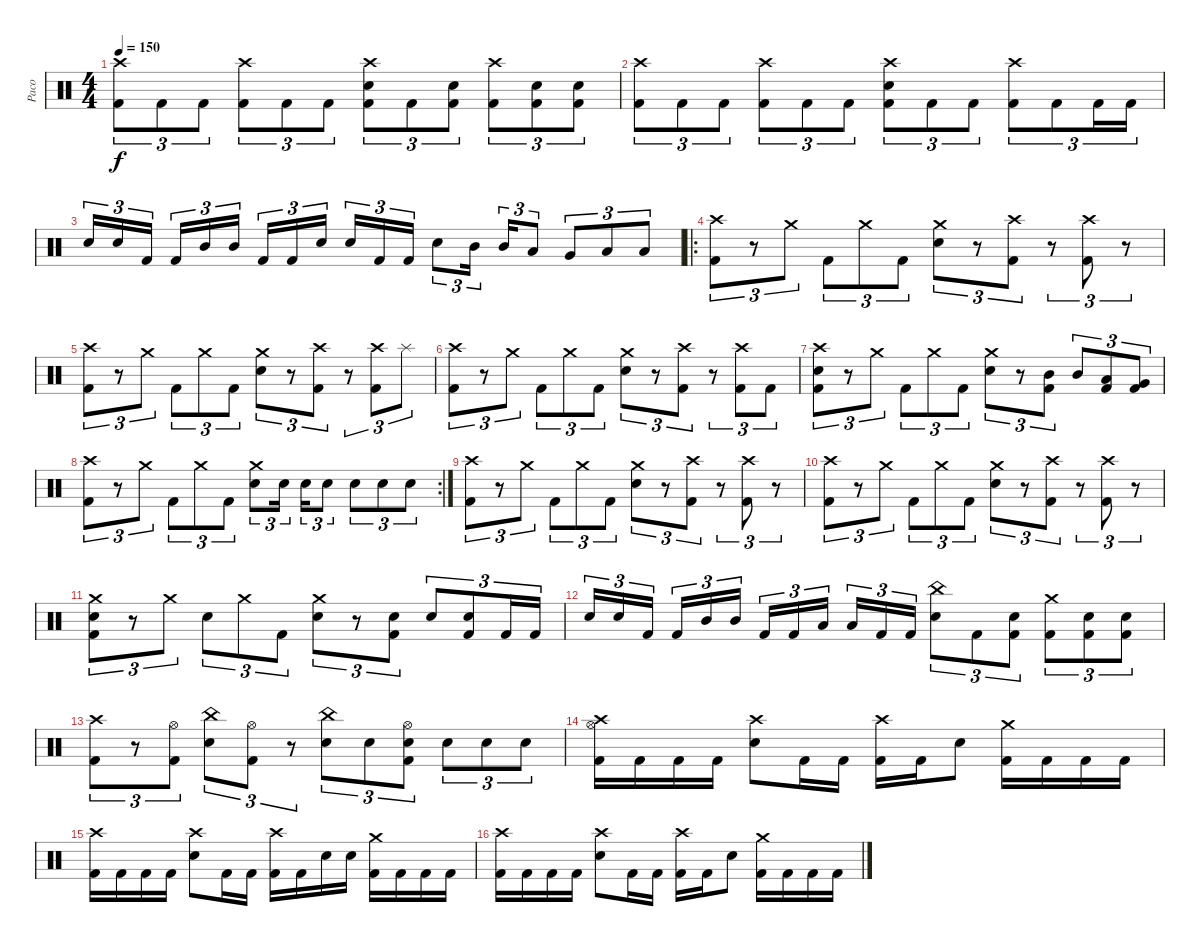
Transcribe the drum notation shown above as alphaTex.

\track ("Paco" "Paco") {instrument percussion}
\staff {score}
\articulation defaults
\ts (4 4)
\tempo 150
\clef neutral
\ks c
("Crash high (hit)" "Kick (hit) 2").8{tu (3 2) dy f} "Kick (hit) 2".8{tu (3 2)} "Kick (hit) 2".8{tu (3 2)} ("Crash high (hit)" "Kick (hit) 2").8{tu (3 2)} "Kick (hit) 2".8{tu (3 2)} "Kick (hit) 2".8{tu (3 2)} ("Crash high (hit)" "Electric Snare (hit)" "Kick (hit) 2").8{tu (3 2)} "Kick (hit) 2".8{tu (3 2)} ("Electric Snare (hit)" "Kick (hit) 2").8{tu (3 2)} ("Crash high (hit)" "Kick (hit) 2").8{tu (3 2)} ("Electric Snare (hit)" "Kick (hit) 2").8{tu (3 2)} ("Electric Snare (hit)" "Kick (hit) 2").8{tu (3 2)} |
("Crash high (hit)" "Kick (hit) 2").8{tu (3 2)} "Kick (hit) 2".8{tu (3 2)} "Kick (hit) 2".8{tu (3 2)} ("Crash high (hit)" "Kick (hit) 2").8{tu (3 2)} "Kick (hit) 2".8{tu (3 2)} "Kick (hit) 2".8{tu (3 2)} ("Crash high (hit)" "Electric Snare (hit)" "Kick (hit) 2").8{tu (3 2)} "Kick (hit) 2".8{tu (3 2)} "Kick (hit) 2".8{tu (3 2)} ("Crash high (hit)" "Kick (hit) 2").8{tu (3 2)} "Kick (hit) 2".8{tu (3 2)} "Kick (hit) 2".16{tu (3 2)} "Kick (hit) 2".16{tu (3 2)} |
"Electric Snare (hit)".16{tu (3 2)} "Electric Snare (hit)".16{tu (3 2)} "Kick (hit) 2".16{tu (3 2) beam splitsecondary} "Kick (hit) 2".16{tu (3 2)} "Mid Tom (hit)".16{tu (3 2)} "Mid Tom (hit)".16{tu (3 2)} "Kick (hit) 2".16{tu (3 2)} "Kick (hit) 2".16{tu (3 2)} "Electric Snare (hit)".16{tu (3 2) beam splitsecondary} "Electric Snare (hit)".16{tu (3 2)} "Kick (hit) 2".16{tu (3 2)} "Kick (hit) 2".16{tu (3 2)} "Electric Snare (hit)".8{tu (3 2)} "Mid Tom (hit)".16{tu (3 2) beam splitsecondary} "Mid Tom (hit)".16{tu (3 2)} "Low Tom (hit)".8{tu (3 2)} "Very Low Tom (hit)".8{tu (3 2)} "Low Floor Tom (hit)".8{tu (3 2)} "Low Floor Tom (hit)".8{tu (3 2)} |
\ro
("Crash high (hit)" "Kick (hit) 2").8{tu (3 2)} r.8{tu (3 2)} "Crash medium (hit)".8{tu (3 2)} "Kick (hit) 2".8{tu (3 2)} "Crash medium (hit)".8{tu (3 2)} "Kick (hit) 2".8{tu (3 2)} ("Crash medium (hit)" "Electric Snare (hit)").8{tu (3 2)} r.8{tu (3 2)} ("Crash high (hit)" "Kick (hit) 2").8{tu (3 2)} r.8{tu (3 2)} ("Crash high (hit)" "Kick (hit) 2").8{tu (3 2)} r.8{tu (3 2)} |
("Crash high (hit)" "Kick (hit) 2").8{tu (3 2)} r.8{tu (3 2)} "Crash medium (hit)".8{tu (3 2)} "Kick (hit) 2".8{tu (3 2)} "Crash medium (hit)".8{tu (3 2)} "Kick (hit) 2".8{tu (3 2)} ("Crash medium (hit)" "Electric Snare (hit)").8{tu (3 2)} r.8{tu (3 2)} ("Crash high (hit)" "Kick (hit) 2").8{tu (3 2)} r.8{tu (3 2)} ("Crash high (hit)" "Kick (hit) 2").8{tu (3 2)} "Splash (hit)".8{tu (3 2)} |
("Crash high (hit)" "Kick (hit) 2").8{tu (3 2)} r.8{tu (3 2)} "Crash medium (hit)".8{tu (3 2)} "Kick (hit) 2".8{tu (3 2)} "Crash medium (hit)".8{tu (3 2)} "Kick (hit) 2".8{tu (3 2)} ("Crash medium (hit)" "Electric Snare (hit)").8{tu (3 2)} r.8{tu (3 2)} ("Crash high (hit)" "Kick (hit) 2").8{tu (3 2)} r.8{tu (3 2)} ("Crash high (hit)" "Kick (hit) 2").8{tu (3 2)} "Kick (hit) 2".8{tu (3 2)} |
("Crash high (hit)" "Electric Snare (hit)" "Kick (hit) 2").8{tu (3 2)} r.8{tu (3 2)} "Crash medium (hit)".8{tu (3 2)} "Kick (hit) 2".8{tu (3 2)} "Crash medium (hit)".8{tu (3 2)} "Kick (hit) 2".8{tu (3 2)} ("Crash medium (hit)" "Electric Snare (hit)").8{tu (3 2)} r.8{tu (3 2)} ("Mid Tom (hit)" "Kick (hit) 2").8{tu (3 2)} "Mid Tom (hit)".8{tu (3 2)} ("Low Tom (hit)" "Kick (hit) 2").8{tu (3 2)} ("Very Low Tom (hit)" "Kick (hit) 2").8{tu (3 2)} |
\rc 2
("Crash high (hit)" "Kick (hit) 2").8{tu (3 2)} r.8{tu (3 2)} "Crash medium (hit)".8{tu (3 2)} "Kick (hit) 2".8{tu (3 2)} "Crash medium (hit)".8{tu (3 2)} "Kick (hit) 2".8{tu (3 2)} ("Crash medium (hit)" "Electric Snare (hit)").8{tu (3 2)} "Electric Snare (hit)".16{tu (3 2) beam splitsecondary} "Electric Snare (hit)".16{tu (3 2)} "Electric Snare (hit)".8{tu (3 2)} "Electric Snare (hit)".8{tu (3 2)} "Electric Snare (hit)".8{tu (3 2)} "Electric Snare (hit)".8{tu (3 2)} |
("Crash high (hit)" "Kick (hit) 2").8{tu (3 2)} r.8{tu (3 2)} "Crash medium (hit)".8{tu (3 2)} "Kick (hit) 2".8{tu (3 2)} "Crash medium (hit)".8{tu (3 2)} "Kick (hit) 2".8{tu (3 2)} ("Crash medium (hit)" "Electric Snare (hit)").8{tu (3 2)} r.8{tu (3 2)} ("Crash high (hit)" "Kick (hit) 2").8{tu (3 2)} r.8{tu (3 2)} ("Crash high (hit)" "Kick (hit) 2").8{tu (3 2)} r.8{tu (3 2)} |
("Crash high (hit)" "Kick (hit) 2").8{tu (3 2)} r.8{tu (3 2)} "Crash medium (hit)".8{tu (3 2)} "Kick (hit) 2".8{tu (3 2)} "Crash medium (hit)".8{tu (3 2)} "Kick (hit) 2".8{tu (3 2)} ("Crash medium (hit)" "Electric Snare (hit)").8{tu (3 2)} r.8{tu (3 2)} ("Crash high (hit)" "Kick (hit) 2").8{tu (3 2)} r.8{tu (3 2)} ("Crash high (hit)" "Kick (hit) 2").8{tu (3 2)} r.8{tu (3 2)} |
("Crash medium (hit)" "Electric Snare (hit)" "Kick (hit) 2").8{tu (3 2)} r.8{tu (3 2)} "Crash medium (hit)".8{tu (3 2)} "Electric Snare (hit)".8{tu (3 2)} "Crash medium (hit)".8{tu (3 2)} "Kick (hit) 2".8{tu (3 2)} ("Crash medium (hit)" "Electric Snare (hit)").8{tu (3 2)} r.8{tu (3 2)} ("Electric Snare (hit)" "Kick (hit) 2").8{tu (3 2)} "Electric Snare (hit)".8{tu (3 2)} ("Electric Snare (hit)" "Kick (hit) 2").8{tu (3 2)} "Kick (hit) 2".16{tu (3 2)} "Kick (hit) 2".16{tu (3 2)} |
"Electric Snare (hit)".16{tu (3 2)} "Electric Snare (hit)".16{tu (3 2)} "Kick (hit) 2".16{tu (3 2) beam splitsecondary} "Kick (hit) 2".16{tu (3 2)} "Mid Tom (hit)".16{tu (3 2)} "Mid Tom (hit)".16{tu (3 2)} "Kick (hit) 2".16{tu (3 2)} "Kick (hit) 2".16{tu (3 2)} "Low Tom (hit)".16{tu (3 2) beam splitsecondary} "Low Tom (hit)".16{tu (3 2)} "Kick (hit) 2".16{tu (3 2)} "Kick (hit) 2".16{tu (3 2)} ("China (hit)" "Electric Snare (hit)").8{tu (3 2)} "Kick (hit) 2".8{tu (3 2)} ("Electric Snare (hit)" "Kick (hit) 2").8{tu (3 2)} ("Crash medium (hit)" "Kick (hit) 2").8{tu (3 2)} ("Electric Snare (hit)" "Kick (hit) 2").8{tu (3 2)} ("Electric Snare (hit)" "Kick (hit) 2").8{tu (3 2)} |
("Crash high (hit)" "Kick (hit) 2").8{tu (3 2)} r.8{tu (3 2)} ("Hi-Hat (open)" "Kick (hit) 2").8{tu (3 2)} ("China (hit)" "Electric Snare (hit)").8{tu (3 2)} ("Hi-Hat (open)" "Kick (hit) 2").8{tu (3 2)} r.8{tu (3 2)} ("China (hit)" "Electric Snare (hit)").8{tu (3 2)} "Electric Snare (hit)".8{tu (3 2)} ("Hi-Hat (open)" "Electric Snare (hit)" "Kick (hit) 2").8{tu (3 2)} "Electric Snare (hit)".8{tu (3 2)} "Electric Snare (hit)".8{tu (3 2)} "Electric Snare (hit)".8{tu (3 2)} |
("Hi-Hat (open)" "Crash high (hit)" "Kick (hit) 2").16 "Kick (hit) 2".16 "Kick (hit) 2".16 "Kick (hit) 2".16 ("Crash high (hit)" "Electric Snare (hit)").8 "Kick (hit) 2".16 "Kick (hit) 2".16 ("Crash high (hit)" "Kick (hit) 2").16 "Kick (hit) 2".16 "Electric Snare (hit)".8 ("Crash medium (hit)" "Kick (hit) 2").16 "Kick (hit) 2".16 "Kick (hit) 2".16 "Kick (hit) 2".16 |
("Crash high (hit)" "Kick (hit) 2").16 "Kick (hit) 2".16 "Kick (hit) 2".16 "Kick (hit) 2".16 ("Crash high (hit)" "Electric Snare (hit)").8 "Kick (hit) 2".16 "Kick (hit) 2".16 ("Crash high (hit)" "Kick (hit) 2").16 "Kick (hit) 2".16 "Electric Snare (hit)".16 "Electric Snare (hit)".16 ("Crash medium (hit)" "Kick (hit) 2").16 "Kick (hit) 2".16 "Kick (hit) 2".16 "Kick (hit) 2".16 |
("Crash high (hit)" "Kick (hit) 2").16 "Kick (hit) 2".16 "Kick (hit) 2".16 "Kick (hit) 2".16 ("Crash high (hit)" "Electric Snare (hit)").8 "Kick (hit) 2".16 "Kick (hit) 2".16 ("Crash high (hit)" "Kick (hit) 2").16 "Kick (hit) 2".16 "Electric Snare (hit)".8 ("Crash medium (hit)" "Kick (hit) 2").16 "Kick (hit) 2".16 "Kick (hit) 2".16 "Kick (hit) 2".16
